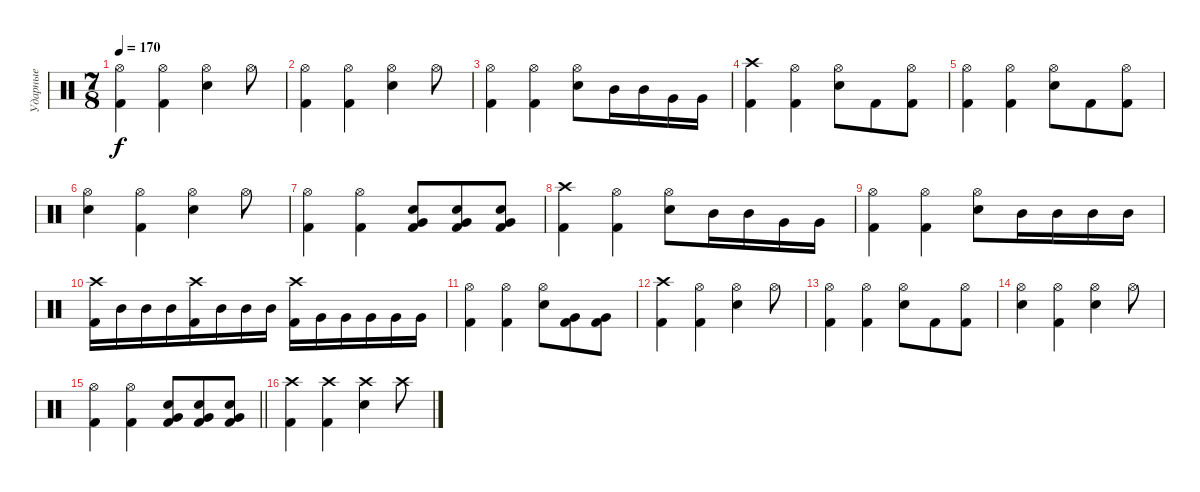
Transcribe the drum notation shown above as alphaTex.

\track ("Ударные" "Ударные") {instrument percussion}
\staff {score}
\articulation defaults
\ts (7 8)
\tempo 170
\clef neutral
\ks c
("Hi-Hat (open)" "Kick (hit) 2").4{dy f} ("Hi-Hat (open)" "Kick (hit) 2").4 ("Hi-Hat (open)" "Electric Snare (hit)").4 "Hi-Hat (open)".8 |
("Hi-Hat (open)" "Kick (hit) 2").4 ("Hi-Hat (open)" "Kick (hit) 2").4 ("Hi-Hat (open)" "Electric Snare (hit)").4 "Hi-Hat (open)".8 |
("Hi-Hat (open)" "Kick (hit) 2").4 ("Hi-Hat (open)" "Kick (hit) 2").4 ("Hi-Hat (open)" "Electric Snare (hit)").8 "Mid Tom (hit)".16 "Mid Tom (hit)".16 "Very Low Tom (hit)".16 "Very Low Tom (hit)".16 |
("Crash high (hit)" "Kick (hit) 2").4 ("Hi-Hat (open)" "Kick (hit) 2").4 ("Hi-Hat (open)" "Electric Snare (hit)").8 "Kick (hit) 2".8 ("Hi-Hat (open)" "Kick (hit) 2").8 |
("Hi-Hat (open)" "Kick (hit) 2").4 ("Hi-Hat (open)" "Kick (hit) 2").4 ("Hi-Hat (open)" "Electric Snare (hit)").8 "Kick (hit) 2".8 ("Hi-Hat (open)" "Kick (hit) 2").8 |
("Hi-Hat (open)" "Electric Snare (hit)").4 ("Hi-Hat (open)" "Kick (hit) 2").4 ("Hi-Hat (open)" "Electric Snare (hit)").4 "Hi-Hat (open)".8 |
("Hi-Hat (open)" "Kick (hit) 2").4 ("Hi-Hat (open)" "Kick (hit) 2").4 ("Electric Snare (hit)" "Very Low Tom (hit)" "Kick (hit) 2").8 ("Electric Snare (hit)" "Very Low Tom (hit)" "Kick (hit) 2").8 ("Electric Snare (hit)" "Very Low Tom (hit)" "Kick (hit) 2").8 |
("Crash high (hit)" "Kick (hit) 2").4 ("Hi-Hat (open)" "Kick (hit) 2").4 ("Hi-Hat (open)" "Electric Snare (hit)").8 "Mid Tom (hit)".16 "Mid Tom (hit)".16 "Very Low Tom (hit)".16 "Very Low Tom (hit)".16 |
("Hi-Hat (open)" "Kick (hit) 2").4 ("Hi-Hat (open)" "Kick (hit) 2").4 ("Hi-Hat (open)" "Electric Snare (hit)").8 "Mid Tom (hit)".16 "Mid Tom (hit)".16 "Mid Tom (hit)".16 "Mid Tom (hit)".16 |
("Crash high (hit)" "Kick (hit) 2").16 "Mid Tom (hit)".16 "Mid Tom (hit)".16 "Mid Tom (hit)".16 ("Crash high (hit)" "Kick (hit) 2").16 "Mid Tom (hit)".16 "Mid Tom (hit)".16 "Mid Tom (hit)".16 ("Crash high (hit)" "Kick (hit) 2").16 "Very Low Tom (hit)".16 "Very Low Tom (hit)".16 "Very Low Tom (hit)".16 "Very Low Tom (hit)".16 "Very Low Tom (hit)".16 |
("Hi-Hat (open)" "Kick (hit) 2").4 ("Hi-Hat (open)" "Kick (hit) 2").4 ("Hi-Hat (open)" "Electric Snare (hit)").8 ("Very Low Tom (hit)" "Kick (hit) 2").8 ("Very Low Tom (hit)" "Kick (hit) 2").8 |
("Crash high (hit)" "Kick (hit) 2").4 ("Hi-Hat (open)" "Kick (hit) 2").4 ("Hi-Hat (open)" "Electric Snare (hit)").4 "Hi-Hat (open)".8 |
("Hi-Hat (open)" "Kick (hit) 2").4 ("Hi-Hat (open)" "Kick (hit) 2").4 ("Hi-Hat (open)" "Electric Snare (hit)").8 "Kick (hit) 2".8 ("Hi-Hat (open)" "Kick (hit) 2").8 |
("Hi-Hat (open)" "Electric Snare (hit)").4 ("Hi-Hat (open)" "Kick (hit) 2").4 ("Hi-Hat (open)" "Electric Snare (hit)").4 "Hi-Hat (open)".8 |
\barLineRight lightlight
("Hi-Hat (open)" "Kick (hit) 2").4 ("Hi-Hat (open)" "Kick (hit) 2").4 ("Electric Snare (hit)" "Very Low Tom (hit)" "Kick (hit) 2").8 ("Electric Snare (hit)" "Very Low Tom (hit)" "Kick (hit) 2").8 ("Electric Snare (hit)" "Very Low Tom (hit)" "Kick (hit) 2").8 |
("Crash high (hit)" "Kick (hit) 2").4 ("Crash high (hit)" "Kick (hit) 2").4 ("Crash high (hit)" "Electric Snare (hit)").4 "Crash high (hit)".8
